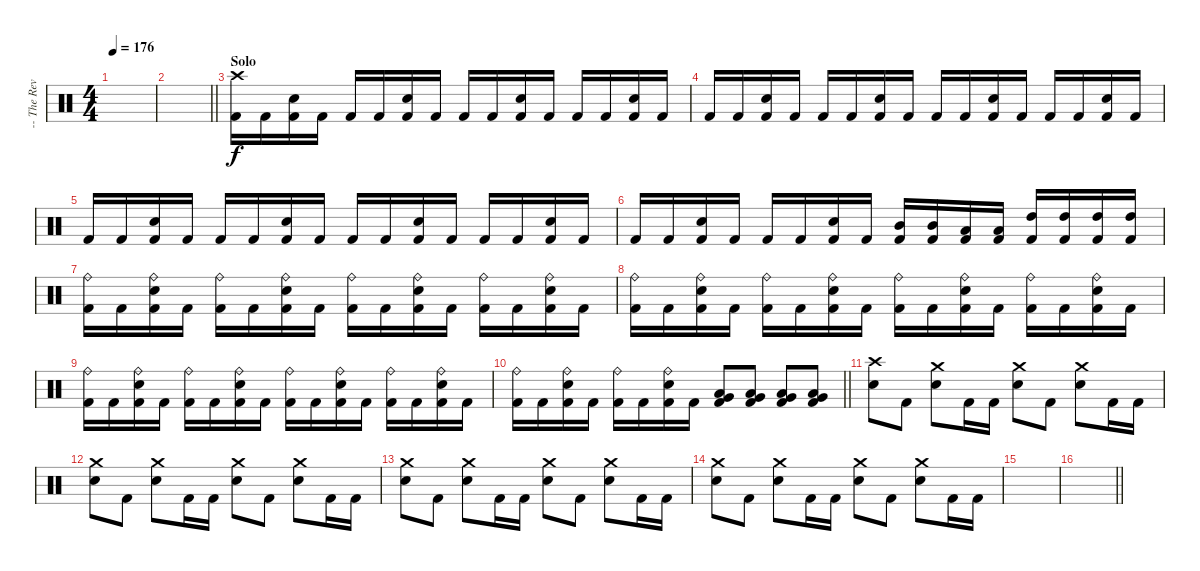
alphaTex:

\track ("-- The Reverend - Drums" "-- The Rev") {instrument percussion}
\staff {score}
\articulation defaults
\ts (4 4)
\tempo 176
\clef neutral
\ks c
|
\barLineRight lightlight
|
\section ("" "Solo")
("Crash high (hit)" "Kick (hit) 2").16 "Kick (hit) 2".16 ("Electric Snare (hit)" "Kick (hit) 2").16 "Kick (hit) 2".16 "Kick (hit) 2".16 "Kick (hit) 2".16 ("Electric Snare (hit)" "Kick (hit) 2").16 "Kick (hit) 2".16 "Kick (hit) 2".16 "Kick (hit) 2".16 ("Electric Snare (hit)" "Kick (hit) 2").16 "Kick (hit) 2".16 "Kick (hit) 2".16 "Kick (hit) 2".16 ("Electric Snare (hit)" "Kick (hit) 2").16 "Kick (hit) 2".16 |
"Kick (hit) 2".16 "Kick (hit) 2".16 ("Electric Snare (hit)" "Kick (hit) 2").16 "Kick (hit) 2".16 "Kick (hit) 2".16 "Kick (hit) 2".16 ("Electric Snare (hit)" "Kick (hit) 2").16 "Kick (hit) 2".16 "Kick (hit) 2".16 "Kick (hit) 2".16 ("Electric Snare (hit)" "Kick (hit) 2").16 "Kick (hit) 2".16 "Kick (hit) 2".16 "Kick (hit) 2".16 ("Electric Snare (hit)" "Kick (hit) 2").16 "Kick (hit) 2".16 |
"Kick (hit) 2".16 "Kick (hit) 2".16 ("Electric Snare (hit)" "Kick (hit) 2").16 "Kick (hit) 2".16 "Kick (hit) 2".16 "Kick (hit) 2".16 ("Electric Snare (hit)" "Kick (hit) 2").16 "Kick (hit) 2".16 "Kick (hit) 2".16 "Kick (hit) 2".16 ("Electric Snare (hit)" "Kick (hit) 2").16 "Kick (hit) 2".16 "Kick (hit) 2".16 "Kick (hit) 2".16 ("Electric Snare (hit)" "Kick (hit) 2").16 "Kick (hit) 2".16 |
"Kick (hit) 2".16 "Kick (hit) 2".16 ("Electric Snare (hit)" "Kick (hit) 2").16 "Kick (hit) 2".16 "Kick (hit) 2".16 "Kick (hit) 2".16 ("Electric Snare (hit)" "Kick (hit) 2").16 "Kick (hit) 2".16 ("Mid Tom (hit)" "Kick (hit) 2").16 ("Mid Tom (hit)" "Kick (hit) 2").16 ("Low Tom (hit)" "Kick (hit) 2").16 ("Low Tom (hit)" "Kick (hit) 2").16 ("High Tom (hit)" "Kick (hit) 2").16 ("High Tom (hit)" "Kick (hit) 2").16 ("High Tom (hit)" "Kick (hit) 2").16 ("High Tom (hit)" "Kick (hit) 2").16 |
("Ride (bell)" "Kick (hit) 2").16 "Kick (hit) 2".16 ("Ride (bell)" "Electric Snare (hit)" "Kick (hit) 2").16 "Kick (hit) 2".16 ("Ride (bell)" "Kick (hit) 2").16 "Kick (hit) 2".16 ("Ride (bell)" "Electric Snare (hit)" "Kick (hit) 2").16 "Kick (hit) 2".16 ("Ride (bell)" "Kick (hit) 2").16 "Kick (hit) 2".16 ("Ride (bell)" "Electric Snare (hit)" "Kick (hit) 2").16 "Kick (hit) 2".16 ("Ride (bell)" "Kick (hit) 2").16 "Kick (hit) 2".16 ("Ride (bell)" "Electric Snare (hit)" "Kick (hit) 2").16 "Kick (hit) 2".16 |
("Ride (bell)" "Kick (hit) 2").16 "Kick (hit) 2".16 ("Ride (bell)" "Electric Snare (hit)" "Kick (hit) 2").16 "Kick (hit) 2".16 ("Ride (bell)" "Kick (hit) 2").16 "Kick (hit) 2".16 ("Ride (bell)" "Electric Snare (hit)" "Kick (hit) 2").16 "Kick (hit) 2".16 ("Ride (bell)" "Kick (hit) 2").16 "Kick (hit) 2".16 ("Ride (bell)" "Electric Snare (hit)" "Kick (hit) 2").16 "Kick (hit) 2".16 ("Ride (bell)" "Kick (hit) 2").16 "Kick (hit) 2".16 ("Ride (bell)" "Electric Snare (hit)" "Kick (hit) 2").16 "Kick (hit) 2".16 |
("Ride (bell)" "Kick (hit) 2").16 "Kick (hit) 2".16 ("Ride (bell)" "Electric Snare (hit)" "Kick (hit) 2").16 "Kick (hit) 2".16 ("Ride (bell)" "Kick (hit) 2").16 "Kick (hit) 2".16 ("Ride (bell)" "Electric Snare (hit)" "Kick (hit) 2").16 "Kick (hit) 2".16 ("Ride (bell)" "Kick (hit) 2").16 "Kick (hit) 2".16 ("Ride (bell)" "Electric Snare (hit)" "Kick (hit) 2").16 "Kick (hit) 2".16 ("Ride (bell)" "Kick (hit) 2").16 "Kick (hit) 2".16 ("Ride (bell)" "Electric Snare (hit)" "Kick (hit) 2").16 "Kick (hit) 2".16 |
\barLineRight lightlight
("Ride (bell)" "Kick (hit) 2").16 "Kick (hit) 2".16 ("Ride (bell)" "Electric Snare (hit)" "Kick (hit) 2").16 "Kick (hit) 2".16 ("Ride (bell)" "Kick (hit) 2").16 "Kick (hit) 2".16 ("Ride (bell)" "Electric Snare (hit)" "Kick (hit) 2").16 "Kick (hit) 2".16 ("Very Low Tom (hit)" "Low Floor Tom (hit)" "Kick (hit) 2").8 ("Very Low Tom (hit)" "Low Floor Tom (hit)" "Kick (hit) 2").8 ("Very Low Tom (hit)" "Low Floor Tom (hit)" "Kick (hit) 2").8 ("Very Low Tom (hit)" "Low Floor Tom (hit)" "Kick (hit) 2").8 |
("Crash high (hit)" "Electric Snare (hit)").8 "Kick (hit) 2".8 ("Crash medium (hit)" "Electric Snare (hit)").8 "Kick (hit) 2".16 "Kick (hit) 2".16 ("Crash medium (hit)" "Electric Snare (hit)").8 "Kick (hit) 2".8 ("Crash medium (hit)" "Electric Snare (hit)").8 "Kick (hit) 2".16 "Kick (hit) 2".16 |
("Crash medium (hit)" "Electric Snare (hit)").8 "Kick (hit) 2".8 ("Crash medium (hit)" "Electric Snare (hit)").8 "Kick (hit) 2".16 "Kick (hit) 2".16 ("Crash medium (hit)" "Electric Snare (hit)").8 "Kick (hit) 2".8 ("Crash medium (hit)" "Electric Snare (hit)").8 "Kick (hit) 2".16 "Kick (hit) 2".16 |
("Crash medium (hit)" "Electric Snare (hit)").8 "Kick (hit) 2".8 ("Crash medium (hit)" "Electric Snare (hit)").8 "Kick (hit) 2".16 "Kick (hit) 2".16 ("Crash medium (hit)" "Electric Snare (hit)").8 "Kick (hit) 2".8 ("Crash medium (hit)" "Electric Snare (hit)").8 "Kick (hit) 2".16 "Kick (hit) 2".16 |
("Crash medium (hit)" "Electric Snare (hit)").8 "Kick (hit) 2".8 ("Crash medium (hit)" "Electric Snare (hit)").8 "Kick (hit) 2".16 "Kick (hit) 2".16 ("Crash medium (hit)" "Electric Snare (hit)").8 "Kick (hit) 2".8 ("Crash medium (hit)" "Electric Snare (hit)").8 "Kick (hit) 2".16 "Kick (hit) 2".16 |
|
\barLineRight lightlight
